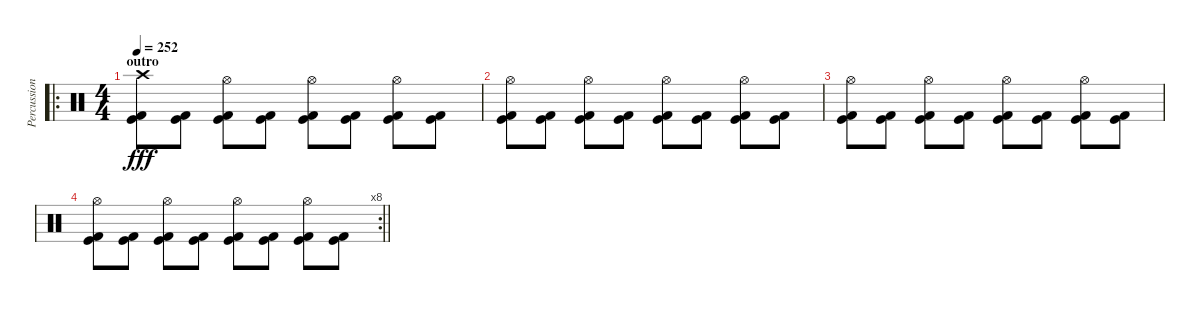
\track ("Percussion" "Percussion") {mute instrument percussion}
\staff {score}
\articulation defaults
\ro
\ts (4 4)
\section ("" "outro")
\tempo 252
\clef neutral
\ks c
("Crash high (hit)" "Kick (hit)" "Kick (hit) 2").8{dy fff} ("Kick (hit)" "Kick (hit) 2").8 ("Hi-Hat (open)" "Kick (hit)" "Kick (hit) 2").8 ("Kick (hit)" "Kick (hit) 2").8 ("Hi-Hat (open)" "Kick (hit)" "Kick (hit) 2").8 ("Kick (hit)" "Kick (hit) 2").8 ("Hi-Hat (open)" "Kick (hit)" "Kick (hit) 2").8 ("Kick (hit)" "Kick (hit) 2").8 |
("Hi-Hat (open)" "Kick (hit)" "Kick (hit) 2").8 ("Kick (hit)" "Kick (hit) 2").8 ("Hi-Hat (open)" "Kick (hit)" "Kick (hit) 2").8 ("Kick (hit)" "Kick (hit) 2").8 ("Hi-Hat (open)" "Kick (hit)" "Kick (hit) 2").8 ("Kick (hit)" "Kick (hit) 2").8 ("Hi-Hat (open)" "Kick (hit)" "Kick (hit) 2").8 ("Kick (hit)" "Kick (hit) 2").8 |
("Hi-Hat (open)" "Kick (hit)" "Kick (hit) 2").8 ("Kick (hit)" "Kick (hit) 2").8 ("Hi-Hat (open)" "Kick (hit)" "Kick (hit) 2").8 ("Kick (hit)" "Kick (hit) 2").8 ("Hi-Hat (open)" "Kick (hit)" "Kick (hit) 2").8 ("Kick (hit)" "Kick (hit) 2").8 ("Hi-Hat (open)" "Kick (hit)" "Kick (hit) 2").8 ("Kick (hit)" "Kick (hit) 2").8 |
\rc 8
\barLineRight lightlight
("Hi-Hat (open)" "Kick (hit)" "Kick (hit) 2").8 ("Kick (hit)" "Kick (hit) 2").8 ("Hi-Hat (open)" "Kick (hit)" "Kick (hit) 2").8 ("Kick (hit)" "Kick (hit) 2").8 ("Hi-Hat (open)" "Kick (hit)" "Kick (hit) 2").8 ("Kick (hit)" "Kick (hit) 2").8 ("Hi-Hat (open)" "Kick (hit)" "Kick (hit) 2").8 ("Kick (hit)" "Kick (hit) 2").8
